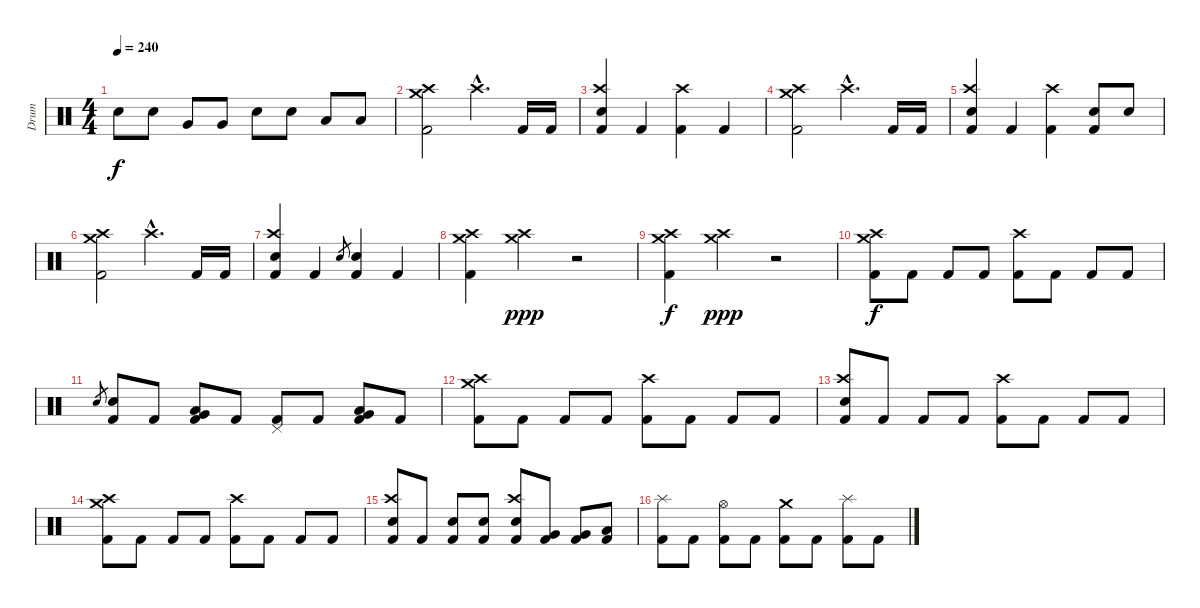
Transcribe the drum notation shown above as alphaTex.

\track ("Drum" "Drum") {instrument percussion}
\staff {score}
\articulation defaults
\ts (4 4)
\tempo 240
\clef neutral
\ks c "Electric Snare (hit)".8{dy f} "Electric Snare (hit)".8 "Very Low Tom (hit)".8 "Very Low Tom (hit)".8 "Electric Snare (hit)".8 "Electric Snare (hit)".8 "Low Tom (hit)".8 "Low Tom (hit)".8
|
("Crash medium (hit)" "Crash high (hit)" "Kick (hit) 2").2 "Crash high (hit)"{hac}.4{d} "Kick (hit) 2".16 "Kick (hit) 2".16 |
("Crash high (hit)" "Electric Snare (hit)" "Kick (hit) 2").4 "Kick (hit) 2".4 ("Crash high (hit)" "Kick (hit) 2").4 "Kick (hit) 2".4 |
("Crash medium (hit)" "Crash high (hit)" "Kick (hit) 2").2 "Crash high (hit)"{hac}.4{d} "Kick (hit) 2".16 "Kick (hit) 2".16 |
("Crash high (hit)" "Electric Snare (hit)" "Kick (hit) 2").4 "Kick (hit) 2".4 ("Crash high (hit)" "Kick (hit) 2").4 ("Electric Snare (hit)" "Kick (hit) 2").8 "Electric Snare (hit)".8 |
("Crash medium (hit)" "Crash high (hit)" "Kick (hit) 2").2 "Crash high (hit)"{hac}.4{d} "Kick (hit) 2".16 "Kick (hit) 2".16 |
("Crash high (hit)" "Electric Snare (hit)" "Kick (hit) 2").4 "Kick (hit) 2".4 "Electric Snare (hit)".8{gr} ("Electric Snare (hit)" "Kick (hit) 2").4 "Kick (hit) 2".4 |
("Crash medium (hit)" "Crash high (hit)" "Kick (hit) 2").4 ("Crash medium (hit)" "Crash high (hit)").4{dy ppp} r.2 |
("Crash medium (hit)" "Crash high (hit)" "Kick (hit) 2").4{dy f} ("Crash medium (hit)" "Crash high (hit)").4{dy ppp} r.2 |
("Crash medium (hit)" "Crash high (hit)" "Kick (hit) 2").8{dy f} "Kick (hit) 2".8 "Kick (hit) 2".8 "Kick (hit) 2".8 ("Crash high (hit)" "Kick (hit) 2").8 "Kick (hit) 2".8 "Kick (hit) 2".8 "Kick (hit) 2".8 |
"Electric Snare (hit)".8{gr} ("Electric Snare (hit)" "Kick (hit) 2").8 "Kick (hit) 2".8 ("Low Tom (hit)" "Very Low Tom (hit)" "Kick (hit) 2").8 "Kick (hit) 2".8 ("Pedal Hi-Hat (hit)" "Kick (hit) 2").8 "Kick (hit) 2".8 ("Low Tom (hit)" "Very Low Tom (hit)" "Kick (hit) 2").8 "Kick (hit) 2".8 |
("Crash medium (hit)" "Crash high (hit)" "Kick (hit) 2").8 "Kick (hit) 2".8 "Kick (hit) 2".8 "Kick (hit) 2".8 ("Crash high (hit)" "Kick (hit) 2").8 "Kick (hit) 2".8 "Kick (hit) 2".8 "Kick (hit) 2".8 |
("Crash high (hit)" "Electric Snare (hit)" "Kick (hit) 2").8 "Kick (hit) 2".8 "Kick (hit) 2".8 "Kick (hit) 2".8 ("Crash high (hit)" "Kick (hit) 2").8 "Kick (hit) 2".8 "Kick (hit) 2".8 "Kick (hit) 2".8 |
("Crash medium (hit)" "Crash high (hit)" "Kick (hit) 2").8 "Kick (hit) 2".8 "Kick (hit) 2".8 "Kick (hit) 2".8 ("Crash high (hit)" "Kick (hit) 2").8 "Kick (hit) 2".8 "Kick (hit) 2".8 "Kick (hit) 2".8 |
("Crash high (hit)" "Electric Snare (hit)" "Kick (hit) 2").8 "Kick (hit) 2".8 ("Electric Snare (hit)" "Kick (hit) 2").8 ("Electric Snare (hit)" "Kick (hit) 2").8 ("Crash high (hit)" "Electric Snare (hit)" "Kick (hit) 2").8 ("Very Low Tom (hit)" "Kick (hit) 2").8 ("Very Low Tom (hit)" "Kick (hit) 2").8 ("Low Tom (hit)" "Kick (hit) 2").8 |
("Splash (hit)" "Kick (hit) 2").8 "Kick (hit) 2".8 ("Hi-Hat (open)" "Kick (hit) 2").8 "Kick (hit) 2".8 ("Crash medium (hit)" "Kick (hit) 2").8 "Kick (hit) 2".8 ("Splash (hit)" "Kick (hit) 2").8 "Kick (hit) 2".8
